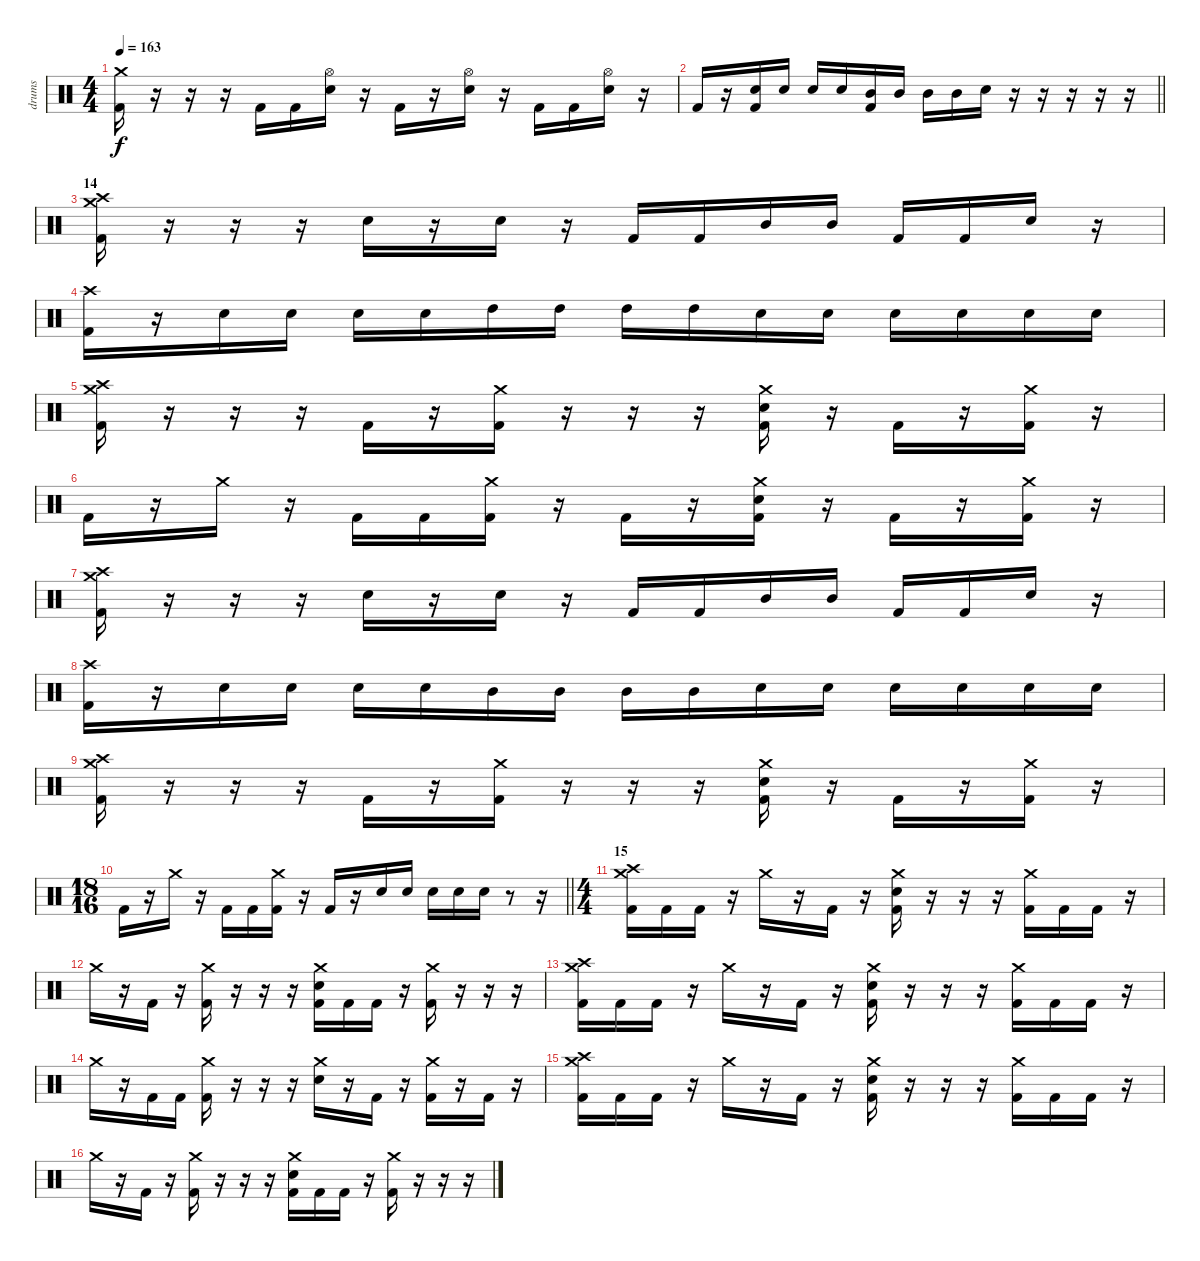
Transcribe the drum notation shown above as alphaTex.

\track ("drums" "drums") {instrument percussion}
\staff {score}
\articulation defaults
\ts (4 4)
\tempo 163
\clef neutral
\ks c
("Crash medium (hit)" "Kick (hit) 2").16{dy f} r.16 r.16 r.16 "Kick (hit) 2".16 "Kick (hit) 2".16 ("Hi-Hat (open)" "Electric Snare (hit)").16 r.16 "Kick (hit) 2".16 r.16 ("Hi-Hat (open)" "Electric Snare (hit)").16 r.16 "Kick (hit) 2".16 "Kick (hit) 2".16 ("Hi-Hat (open)" "Electric Snare (hit)").16 r.16 |
\barLineRight lightlight "Kick (hit) 2".16
r.16 ("Electric Snare (hit)" "Kick (hit) 2").16 "Electric Snare (hit)".16 "Electric Snare (hit)".16 "Electric Snare (hit)".16 ("Mid Tom (hit)" "Kick (hit) 2").16 "Mid Tom (hit)".16 "Mid Tom (hit)".16 "Mid Tom (hit)".16 "Electric Snare (hit)".16 r.16 r.16 r.16 r.16 r.16 |
\section ("" "14")
("Crash high (hit)" "Crash medium (hit)" "Kick (hit) 2").16 r.16 r.16 r.16 "Electric Snare (hit)".16 r.16 "Electric Snare (hit)".16 r.16 "Kick (hit) 2".16 "Kick (hit) 2".16 "Mid Tom (hit)".16 "Mid Tom (hit)".16 "Kick (hit) 2".16 "Kick (hit) 2".16 "Electric Snare (hit)".16 r.16 |
("Crash high (hit)" "Kick (hit) 2").16 r.16 "Electric Snare (hit)".16 "Electric Snare (hit)".16 "Electric Snare (hit)".16 "Electric Snare (hit)".16 "High Tom (hit)".16 "High Tom (hit)".16 "High Tom (hit)".16 "High Tom (hit)".16 "Electric Snare (hit)".16 "Electric Snare (hit)".16 "Electric Snare (hit)".16 "Electric Snare (hit)".16 "Electric Snare (hit)".16 "Electric Snare (hit)".16 |
("Crash medium (hit)" "Crash high (hit)" "Kick (hit) 2").16 r.16 r.16 r.16 "Kick (hit) 2".16 r.16 ("Crash medium (hit)" "Kick (hit) 2").16 r.16 r.16 r.16 ("Crash medium (hit)" "Electric Snare (hit)" "Kick (hit) 2").16 r.16 "Kick (hit) 2".16 r.16 ("Crash medium (hit)" "Kick (hit) 2").16 r.16 |
"Kick (hit) 2".16 r.16 "Crash medium (hit)".16 r.16 "Kick (hit) 2".16 "Kick (hit) 2".16 ("Crash medium (hit)" "Kick (hit) 2").16 r.16 "Kick (hit) 2".16 r.16 ("Crash medium (hit)" "Electric Snare (hit)" "Kick (hit) 2").16 r.16 "Kick (hit) 2".16 r.16 ("Crash medium (hit)" "Kick (hit) 2").16 r.16 |
("Crash medium (hit)" "Crash high (hit)" "Kick (hit) 2").16 r.16 r.16 r.16 "Electric Snare (hit)".16 r.16 "Electric Snare (hit)".16 r.16 "Kick (hit) 2".16 "Kick (hit) 2".16 "Mid Tom (hit)".16 "Mid Tom (hit)".16 "Kick (hit) 2".16 "Kick (hit) 2".16 "Electric Snare (hit)".16 r.16 |
("Crash high (hit)" "Kick (hit) 2").16 r.16 "Electric Snare (hit)".16 "Electric Snare (hit)".16 "Electric Snare (hit)".16 "Electric Snare (hit)".16 "Mid Tom (hit)".16 "Mid Tom (hit)".16 "Mid Tom (hit)".16 "Mid Tom (hit)".16 "Electric Snare (hit)".16 "Electric Snare (hit)".16 "Electric Snare (hit)".16 "Electric Snare (hit)".16 "Electric Snare (hit)".16 "Electric Snare (hit)".16 |
("Crash medium (hit)" "Crash high (hit)" "Kick (hit) 2").16 r.16 r.16 r.16 "Kick (hit) 2".16 r.16 ("Crash medium (hit)" "Kick (hit) 2").16 r.16 r.16 r.16 ("Crash medium (hit)" "Electric Snare (hit)" "Kick (hit) 2").16 r.16 "Kick (hit) 2".16 r.16 ("Crash medium (hit)" "Kick (hit) 2").16 r.16 |
\ts (18 16)
\barLineRight lightlight "Kick (hit) 2".16
r.16 "Crash medium (hit)".16 r.16 "Kick (hit) 2".16 "Kick (hit) 2".16 ("Crash medium (hit)" "Kick (hit) 2").16 r.16 "Kick (hit) 2".16 r.16 "Electric Snare (hit)".16 "Electric Snare (hit)".16 "Electric Snare (hit)".16 "Electric Snare (hit)".16 "Electric Snare (hit)".16 r.8 r.16 |
\ts (4 4)
\section ("" "15")
("Crash medium (hit)" "Crash high (hit)" "Kick (hit) 2").16 "Kick (hit) 2".16 "Kick (hit) 2".16 r.16 "Crash medium (hit)".16 r.16 "Kick (hit) 2".16 r.16 ("Crash medium (hit)" "Electric Snare (hit)" "Kick (hit) 2").16 r.16 r.16 r.16 ("Crash medium (hit)" "Kick (hit) 2").16 "Kick (hit) 2".16 "Kick (hit) 2".16 r.16 |
"Crash medium (hit)".16 r.16 "Kick (hit) 2".16 r.16 ("Crash medium (hit)" "Kick (hit) 2").16 r.16 r.16 r.16 ("Crash medium (hit)" "Electric Snare (hit)" "Kick (hit) 2").16 "Kick (hit) 2".16 "Kick (hit) 2".16 r.16 ("Crash medium (hit)" "Kick (hit) 2").16 r.16 r.16 r.16 |
("Crash medium (hit)" "Crash high (hit)" "Kick (hit) 2").16 "Kick (hit) 2".16 "Kick (hit) 2".16 r.16 "Crash medium (hit)".16 r.16 "Kick (hit) 2".16 r.16 ("Crash medium (hit)" "Electric Snare (hit)" "Kick (hit) 2").16 r.16 r.16 r.16 ("Crash medium (hit)" "Kick (hit) 2").16 "Kick (hit) 2".16 "Kick (hit) 2".16 r.16 |
"Crash medium (hit)".16 r.16 "Kick (hit) 2".16 "Kick (hit) 2".16 ("Crash medium (hit)" "Kick (hit) 2").16 r.16 r.16 r.16 ("Crash medium (hit)" "Electric Snare (hit)").16 r.16 "Kick (hit) 2".16 r.16 ("Crash medium (hit)" "Kick (hit) 2").16 r.16 "Kick (hit) 2".16 r.16 |
("Crash medium (hit)" "Crash high (hit)" "Kick (hit) 2").16 "Kick (hit) 2".16 "Kick (hit) 2".16 r.16 "Crash medium (hit)".16 r.16 "Kick (hit) 2".16 r.16 ("Crash medium (hit)" "Electric Snare (hit)" "Kick (hit) 2").16 r.16 r.16 r.16 ("Crash medium (hit)" "Kick (hit) 2").16 "Kick (hit) 2".16 "Kick (hit) 2".16 r.16 |
"Crash medium (hit)".16 r.16 "Kick (hit) 2".16 r.16 ("Crash medium (hit)" "Kick (hit) 2").16 r.16 r.16 r.16 ("Crash medium (hit)" "Electric Snare (hit)" "Kick (hit) 2").16 "Kick (hit) 2".16 "Kick (hit) 2".16 r.16 ("Crash medium (hit)" "Kick (hit) 2").16 r.16 r.16 r.16
